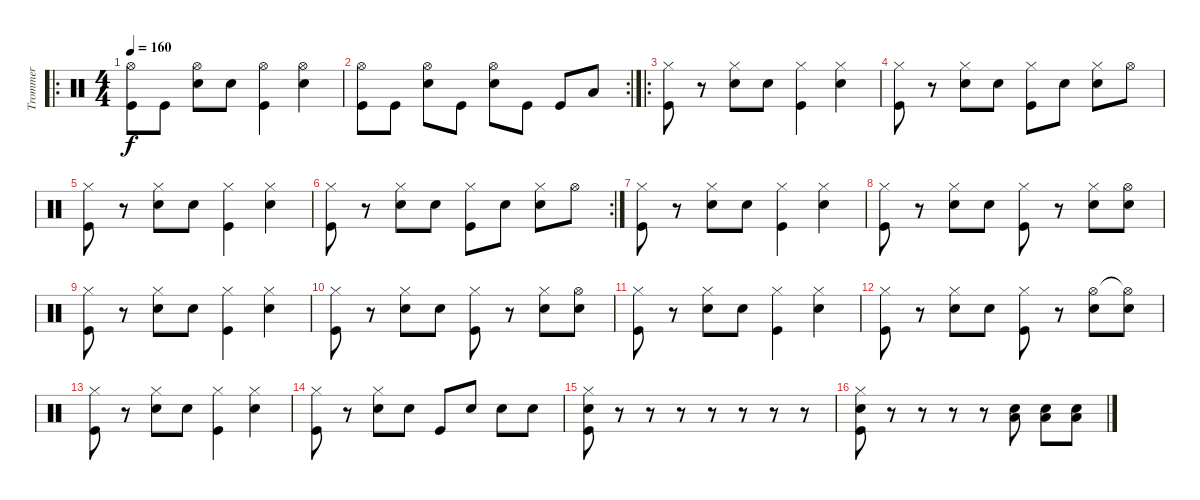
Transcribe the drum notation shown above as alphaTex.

\track ("Trommer" "Trommer") {instrument percussion}
\staff {score}
\articulation defaults
\ro
\ts (4 4)
\tempo 160
\clef neutral
\ks c
("Hi-Hat (open)" "Kick (hit)").8{dy f} "Kick (hit)".8 ("Hi-Hat (open)" "Snare (hit) 2").8 "Snare (hit) 2".8 ("Hi-Hat (open)" "Kick (hit)").4 ("Hi-Hat (open)" "Snare (hit) 2").4 |
\rc 2
("Hi-Hat (open)" "Kick (hit)").8 "Kick (hit)".8 ("Hi-Hat (open)" "Snare (hit) 2").8 "Kick (hit)".8 ("Hi-Hat (open)" "Snare (hit) 2").8 "Kick (hit)".8 "Kick (hit)".8 "Low Floor Tom (hit)".8 |
\ro
("Hi-Hat (closed)" "Kick (hit)").8 r.8 ("Hi-Hat (closed)" "Snare (hit) 2").8 "Snare (hit) 2".8 ("Hi-Hat (closed)" "Kick (hit)").4 ("Hi-Hat (closed)" "Snare (hit) 2").4 |
("Hi-Hat (closed)" "Kick (hit)").8 r.8 ("Hi-Hat (closed)" "Snare (hit) 2").8 "Snare (hit) 2".8 ("Hi-Hat (closed)" "Kick (hit)").8 "Snare (hit) 2".8 ("Hi-Hat (closed)" "Snare (hit) 2").8 "Hi-Hat (open)".8 |
("Hi-Hat (closed)" "Kick (hit)").8 r.8 ("Hi-Hat (closed)" "Snare (hit) 2").8 "Snare (hit) 2".8 ("Hi-Hat (closed)" "Kick (hit)").4 ("Hi-Hat (closed)" "Snare (hit) 2").4 |
\rc 2
("Hi-Hat (closed)" "Kick (hit)").8 r.8 ("Hi-Hat (closed)" "Snare (hit) 2").8 "Snare (hit) 2".8 ("Hi-Hat (closed)" "Kick (hit)").8 "Snare (hit) 2".8 ("Hi-Hat (closed)" "Snare (hit) 2").8 "Hi-Hat (open)".8 |
("Hi-Hat (closed)" "Kick (hit)").8 r.8 ("Hi-Hat (closed)" "Snare (hit) 2").8 "Snare (hit) 2".8 ("Hi-Hat (closed)" "Kick (hit)").4 ("Hi-Hat (closed)" "Snare (hit) 2").4 |
("Hi-Hat (closed)" "Kick (hit)").8 r.8 ("Hi-Hat (closed)" "Snare (hit) 2").8 "Snare (hit) 2".8 ("Hi-Hat (closed)" "Kick (hit)").8 r.8 ("Hi-Hat (closed)" "Snare (hit) 2").8 ("Hi-Hat (open)" "Snare (hit) 2").8 |
("Hi-Hat (closed)" "Kick (hit)").8 r.8 ("Hi-Hat (closed)" "Snare (hit) 2").8 "Snare (hit) 2".8 ("Hi-Hat (closed)" "Kick (hit)").4 ("Hi-Hat (closed)" "Snare (hit) 2").4 |
("Hi-Hat (closed)" "Kick (hit)").8 r.8 ("Hi-Hat (closed)" "Snare (hit) 2").8 "Snare (hit) 2".8 ("Hi-Hat (closed)" "Kick (hit)").8 r.8 ("Hi-Hat (closed)" "Snare (hit) 2").8 ("Hi-Hat (open)" "Snare (hit) 2").8 |
("Hi-Hat (closed)" "Kick (hit)").8 r.8 ("Hi-Hat (closed)" "Snare (hit) 2").8 "Snare (hit) 2".8 ("Hi-Hat (closed)" "Kick (hit)").4 ("Hi-Hat (closed)" "Snare (hit) 2").4 |
("Hi-Hat (closed)" "Kick (hit)").8 r.8 ("Hi-Hat (closed)" "Snare (hit) 2").8 "Snare (hit) 2".8 ("Hi-Hat (closed)" "Kick (hit)").8 r.8 ("Hi-Hat (open)" "Snare (hit) 2").8 ("Hi-Hat (open)"{t} "Snare (hit) 2").8 |
("Hi-Hat (closed)" "Kick (hit)").8 r.8 ("Hi-Hat (closed)" "Snare (hit) 2").8 "Snare (hit) 2".8 ("Hi-Hat (closed)" "Kick (hit)").4 ("Hi-Hat (closed)" "Snare (hit) 2").4 |
("Hi-Hat (closed)" "Kick (hit)").8 r.8 ("Hi-Hat (closed)" "Snare (hit) 2").8 "Snare (hit) 2".8 "Kick (hit)".8 "Snare (hit) 2".8 "Snare (hit) 2".8 "Snare (hit) 2".8 |
("Hi-Hat (closed)" "Snare (hit) 2" "Kick (hit)").8 r.8 r.8 r.8 r.8 r.8 r.8 r.8 |
("Hi-Hat (closed)" "Snare (hit) 2" "Kick (hit)").8 r.8 r.8 r.8 r.8 ("Snare (hit) 2" "Low Floor Tom (hit)").8 ("Snare (hit) 2" "Low Floor Tom (hit)").8 ("Snare (hit) 2" "Low Floor Tom (hit)").8
